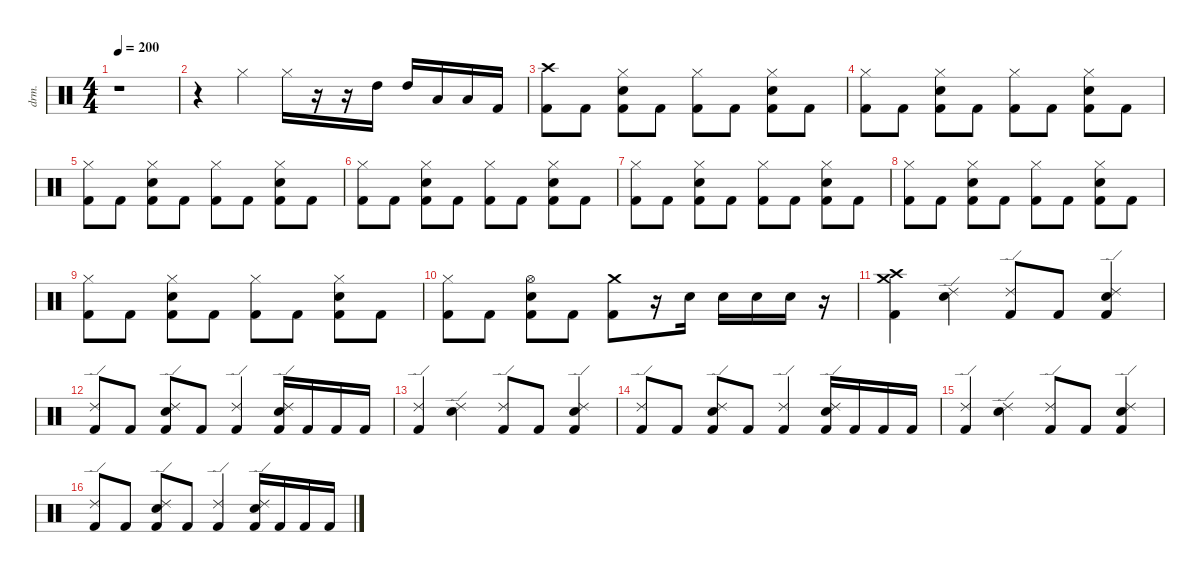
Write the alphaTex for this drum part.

\defaultSystemsLayout 4
\hideDynamics
\bracketExtendMode nobrackets
\track ("Drums" "drm.") {instrument percussion}
\staff {score}
\articulation defaults
\ts (4 4)
\tempo 200
\clef neutral
\ks c
r.1{dy fff} |
r.4 "Hi-Hat (closed)".4{dy f} "Hi-Hat (closed)".16 r.16 r.16 "High Tom (hit)".16 "High Tom (hit)".16 "Low Tom (hit)".16 "Low Tom (hit)".16 "Kick (hit) 2".16 |
("Crash high (hit)" "Kick (hit) 2").8 "Kick (hit) 2".8 ("Hi-Hat (closed)" "Snare (hit) 2" "Kick (hit) 2").8 "Kick (hit) 2".8 ("Hi-Hat (closed)" "Kick (hit) 2").8 "Kick (hit) 2".8 ("Hi-Hat (closed)" "Snare (hit) 2" "Kick (hit) 2").8 "Kick (hit) 2".8 |
("Hi-Hat (closed)" "Kick (hit) 2").8 "Kick (hit) 2".8 ("Hi-Hat (closed)" "Snare (hit) 2" "Kick (hit) 2").8 "Kick (hit) 2".8 ("Hi-Hat (closed)" "Kick (hit) 2").8 "Kick (hit) 2".8 ("Hi-Hat (closed)" "Snare (hit) 2" "Kick (hit) 2").8 "Kick (hit) 2".8 |
("Hi-Hat (closed)" "Kick (hit) 2").8 "Kick (hit) 2".8 ("Hi-Hat (closed)" "Snare (hit) 2" "Kick (hit) 2").8 "Kick (hit) 2".8 ("Hi-Hat (closed)" "Kick (hit) 2").8 "Kick (hit) 2".8 ("Hi-Hat (closed)" "Snare (hit) 2" "Kick (hit) 2").8 "Kick (hit) 2".8 |
("Hi-Hat (closed)" "Kick (hit) 2").8 "Kick (hit) 2".8 ("Hi-Hat (closed)" "Snare (hit) 2" "Kick (hit) 2").8 "Kick (hit) 2".8 ("Hi-Hat (closed)" "Kick (hit) 2").8 "Kick (hit) 2".8 ("Hi-Hat (closed)" "Snare (hit) 2" "Kick (hit) 2").8 "Kick (hit) 2".8 |
("Hi-Hat (closed)" "Kick (hit) 2").8 "Kick (hit) 2".8 ("Hi-Hat (closed)" "Snare (hit) 2" "Kick (hit) 2").8 "Kick (hit) 2".8 ("Hi-Hat (closed)" "Kick (hit) 2").8 "Kick (hit) 2".8 ("Hi-Hat (closed)" "Snare (hit) 2" "Kick (hit) 2").8 "Kick (hit) 2".8 |
("Hi-Hat (closed)" "Kick (hit) 2").8 "Kick (hit) 2".8 ("Hi-Hat (closed)" "Snare (hit) 2" "Kick (hit) 2").8 "Kick (hit) 2".8 ("Hi-Hat (closed)" "Kick (hit) 2").8 "Kick (hit) 2".8 ("Hi-Hat (closed)" "Snare (hit) 2" "Kick (hit) 2").8 "Kick (hit) 2".8 |
("Hi-Hat (closed)" "Kick (hit) 2").8 "Kick (hit) 2".8 ("Hi-Hat (closed)" "Snare (hit) 2" "Kick (hit) 2").8 "Kick (hit) 2".8 ("Hi-Hat (closed)" "Kick (hit) 2").8 "Kick (hit) 2".8 ("Hi-Hat (closed)" "Snare (hit) 2" "Kick (hit) 2").8 "Kick (hit) 2".8 |
("Hi-Hat (closed)" "Kick (hit) 2").8 "Kick (hit) 2".8 ("Hi-Hat (open)" "Snare (hit) 2" "Kick (hit) 2").8 "Kick (hit) 2".8 ("Crash medium (hit)" "Kick (hit) 2").8{dy ff} r.16 "Snare (hit) 2".16{dy fff} "Snare (hit) 2".16 "Snare (hit) 2".16 "Snare (hit) 2".16 r.16 |
("Crash high (hit)" "Crash medium (hit)" "Kick (hit) 2").4{dy mf} ("Ride (edge) 2" "Snare (hit) 2").4 ("Ride (edge) 2" "Kick (hit) 2").8 "Kick (hit) 2".8{dy f} ("Ride (edge) 2" "Snare (hit) 2" "Kick (hit) 2").4{dy mf} |
("Ride (edge) 2" "Kick (hit) 2").8{dy f} "Kick (hit) 2".8 ("Ride (edge) 2" "Snare (hit) 2" "Kick (hit) 2").8{dy mf} "Kick (hit) 2".8{dy f} ("Ride (edge) 2" "Kick (hit) 2").4{dy mf} ("Ride (edge) 2" "Snare (hit) 2" "Kick (hit) 2").16 "Kick (hit) 2".16{dy f} "Kick (hit) 2".16 "Kick (hit) 2".16 |
("Ride (edge) 2" "Kick (hit) 2").4{dy mf} ("Ride (edge) 2" "Snare (hit) 2").4 ("Ride (edge) 2" "Kick (hit) 2").8 "Kick (hit) 2".8{dy f} ("Ride (edge) 2" "Snare (hit) 2" "Kick (hit) 2").4{dy mf} |
("Ride (edge) 2" "Kick (hit) 2").8{dy f} "Kick (hit) 2".8 ("Ride (edge) 2" "Snare (hit) 2" "Kick (hit) 2").8{dy mf} "Kick (hit) 2".8{dy f} ("Ride (edge) 2" "Kick (hit) 2").4{dy mf} ("Ride (edge) 2" "Snare (hit) 2" "Kick (hit) 2").16 "Kick (hit) 2".16{dy f} "Kick (hit) 2".16 "Kick (hit) 2".16 |
("Ride (edge) 2" "Kick (hit) 2").4{dy mf} ("Ride (edge) 2" "Snare (hit) 2").4 ("Ride (edge) 2" "Kick (hit) 2").8 "Kick (hit) 2".8{dy f} ("Ride (edge) 2" "Snare (hit) 2" "Kick (hit) 2").4{dy mf} |
("Ride (edge) 2" "Kick (hit) 2").8{dy f} "Kick (hit) 2".8 ("Ride (edge) 2" "Snare (hit) 2" "Kick (hit) 2").8{dy mf} "Kick (hit) 2".8{dy f} ("Ride (edge) 2" "Kick (hit) 2").4{dy mf} ("Ride (edge) 2" "Snare (hit) 2" "Kick (hit) 2").16 "Kick (hit) 2".16{dy f} "Kick (hit) 2".16 "Kick (hit) 2".16
